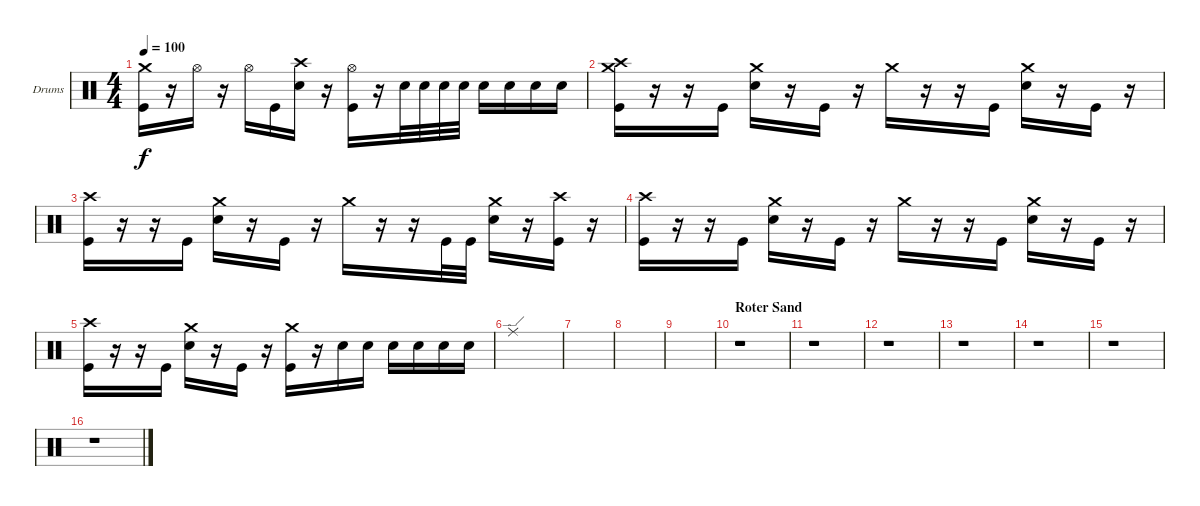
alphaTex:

\bracketExtendMode groupsimilarinstruments
\firstSystemTrackNameOrientation horizontal
\otherSystemsTrackNameOrientation horizontal
\track ("Drumkit (Christoph)" "Drums") {instrument percussion}
\staff {score}
\articulation defaults
\ts (4 4)
\tempo 100
\clef neutral
\ks c
("Crash medium (hit)" "Kick (hit)").16{dy f} r.16 "Hi-Hat (open)".16 r.16 "Hi-Hat (open)".16 "Kick (hit)".16 ("Crash high (hit)" "Snare (hit) 2").16 r.16 ("Hi-Hat (open)" "Kick (hit)").16 r.16 "Snare (hit) 2".32 "Snare (hit) 2".32 "Snare (hit) 2".32 "Snare (hit) 2".32 "Snare (hit) 2".16 "Snare (hit) 2".16 "Snare (hit) 2".16 "Snare (hit) 2".16 |
("Crash medium (hit)" "Crash high (hit)" "Kick (hit)").16 r.16 r.16 "Kick (hit)".16 ("Crash medium (hit)" "Snare (hit) 2").16 r.16 "Kick (hit)".16 r.16 "Crash medium (hit)".16 r.16 r.16 "Kick (hit)".16 ("Crash medium (hit)" "Snare (hit) 2").16 r.16 "Kick (hit)".16 r.16 |
("Crash high (hit)" "Kick (hit)").16 r.16 r.16 "Kick (hit)".16 ("Crash medium (hit)" "Snare (hit) 2").16 r.16 "Kick (hit)".16 r.16 "Crash medium (hit)".16 r.16 r.16 "Kick (hit)".32 "Kick (hit)".32 ("Crash medium (hit)" "Snare (hit) 2").16 r.16 ("Crash high (hit)" "Kick (hit)").16 r.16 |
("Crash high (hit)" "Kick (hit)").16 r.16 r.16 "Kick (hit)".16 ("Crash medium (hit)" "Snare (hit) 2").16 r.16 "Kick (hit)".16 r.16 "Crash medium (hit)".16 r.16 r.16 "Kick (hit)".16 ("Crash medium (hit)" "Snare (hit) 2").16 r.16 "Kick (hit)".16 r.16 |
("Crash high (hit)" "Kick (hit)").16 r.16 r.16 "Kick (hit)".16 ("Crash medium (hit)" "Snare (hit) 2").16 r.16 "Kick (hit)".16 r.16 ("Crash medium (hit)" "Kick (hit)").16 r.16 "Snare (hit) 2".16 "Snare (hit) 2".16 "Snare (hit) 2".16 "Snare (hit) 2".16 "Snare (hit) 2".16 "Snare (hit) 2".16 |
"Ride (edge)".1 |
|
|
|
\section ("" "Roter Sand")
r.1 |
r.1 |
r.1 |
r.1 |
r.1 |
r.1 |
r.1
